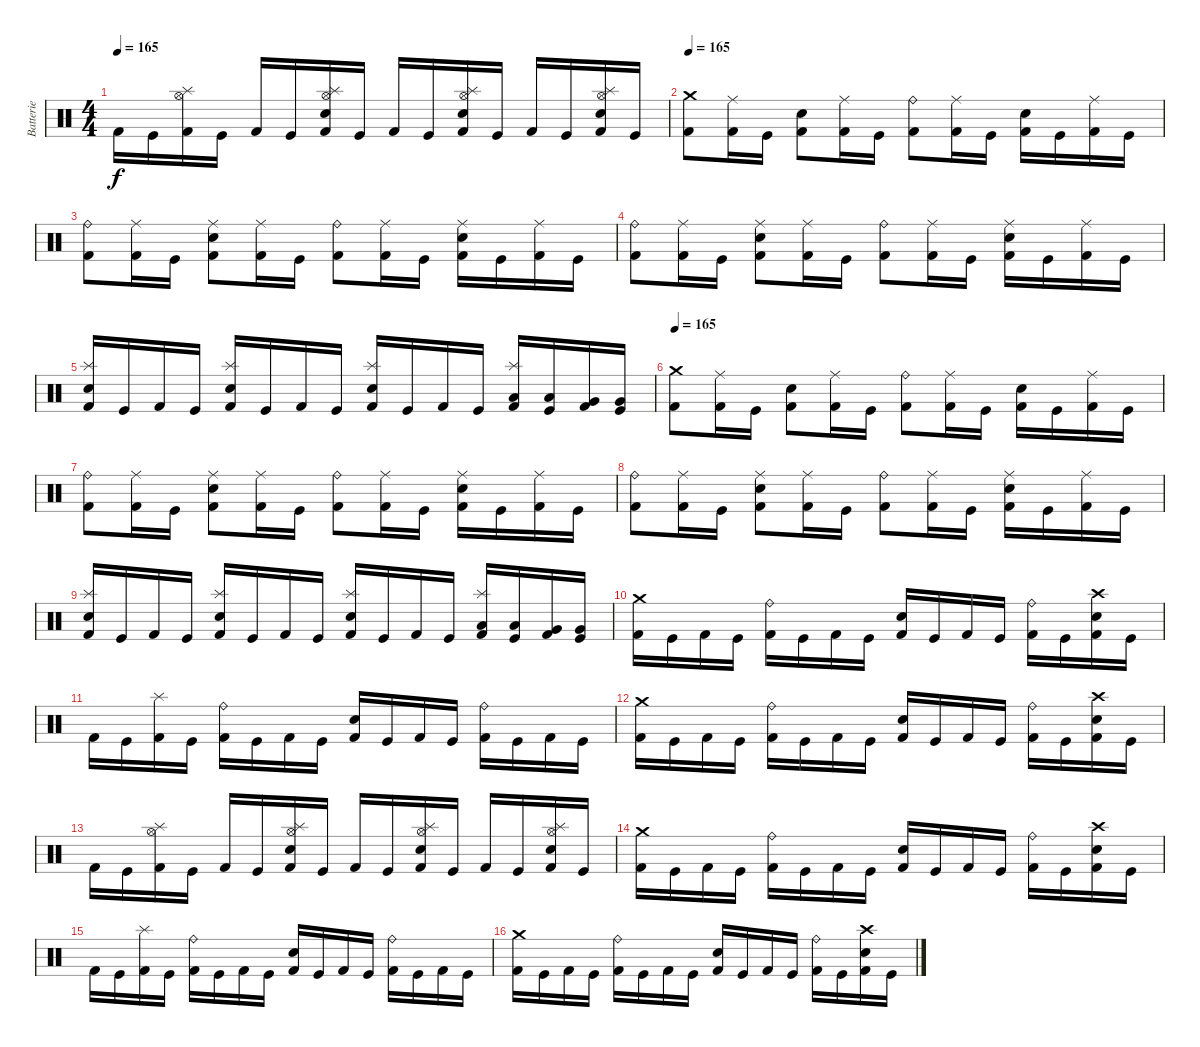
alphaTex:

\track ("Batterie" "Batterie") {instrument percussion}
\staff {score}
\articulation defaults
\ts (4 4)
\tempo 165
\clef neutral
\ks c "Kick (hit) 2".16{dy f} "Kick (hit)".16
("Hi-Hat (open)" "Splash (hit)" "Kick (hit) 2").16 "Kick (hit)".16 "Kick (hit) 2".16 "Kick (hit)".16 ("Hi-Hat (open)" "Splash (hit)" "Snare (hit) 2" "Kick (hit) 2").16 "Kick (hit)".16 "Kick (hit) 2".16 "Kick (hit)".16 ("Hi-Hat (open)" "Splash (hit)" "Snare (hit) 2" "Kick (hit) 2").16 "Kick (hit)".16 "Kick (hit) 2".16 "Kick (hit)".16 ("Hi-Hat (open)" "Splash (hit)" "Snare (hit) 2" "Kick (hit) 2").16 "Kick (hit)".16 |
\tempo 165
("Crash medium (hit)" "Kick (hit) 2").8 ("Ride (middle)" "Kick (hit) 2").16 "Kick (hit)".16 ("Snare (hit) 2" "Kick (hit) 2").8 ("Ride (middle)" "Kick (hit) 2").16 "Kick (hit)".16 ("Ride (bell)" "Kick (hit) 2").8 ("Ride (middle)" "Kick (hit) 2").16 "Kick (hit)".16 ("Snare (hit) 2" "Kick (hit) 2").16 "Kick (hit)".16 ("Ride (middle)" "Kick (hit) 2").16 "Kick (hit)".16 |
("Ride (bell)" "Kick (hit) 2").8 ("Ride (middle)" "Kick (hit) 2").16 "Kick (hit)".16 ("Ride (middle)" "Snare (hit) 2" "Kick (hit) 2").8 ("Ride (middle)" "Kick (hit) 2").16 "Kick (hit)".16 ("Ride (bell)" "Kick (hit) 2").8 ("Ride (middle)" "Kick (hit) 2").16 "Kick (hit)".16 ("Ride (middle)" "Snare (hit) 2" "Kick (hit) 2").16 "Kick (hit)".16 ("Ride (middle)" "Kick (hit) 2").16 "Kick (hit)".16 |
("Ride (bell)" "Kick (hit) 2").8 ("Ride (middle)" "Kick (hit) 2").16 "Kick (hit)".16 ("Ride (middle)" "Snare (hit) 2" "Kick (hit) 2").8 ("Ride (middle)" "Kick (hit) 2").16 "Kick (hit)".16 ("Ride (bell)" "Kick (hit) 2").8 ("Ride (middle)" "Kick (hit) 2").16 "Kick (hit)".16 ("Ride (middle)" "Snare (hit) 2" "Kick (hit) 2").16 "Kick (hit)".16 ("Ride (middle)" "Kick (hit) 2").16 "Kick (hit)".16 |
("Splash (hit)" "Snare (hit) 2" "Kick (hit) 2").16 "Kick (hit)".16 "Kick (hit) 2".16 "Kick (hit)".16 ("Splash (hit)" "Snare (hit) 2" "Kick (hit) 2").16 "Kick (hit)".16 "Kick (hit) 2".16 "Kick (hit)".16 ("Splash (hit)" "Snare (hit) 2" "Kick (hit) 2").16 "Kick (hit)".16 "Kick (hit) 2".16 "Kick (hit)".16 ("Splash (hit)" "Low Tom (hit)" "Kick (hit) 2").16 ("Low Tom (hit)" "Kick (hit)").16 ("Very Low Tom (hit)" "Kick (hit) 2").16 ("Very Low Tom (hit)" "Kick (hit)").16 |
\tempo 165
("Crash medium (hit)" "Kick (hit) 2").8 ("Ride (middle)" "Kick (hit) 2").16 "Kick (hit)".16 ("Snare (hit) 2" "Kick (hit) 2").8 ("Ride (middle)" "Kick (hit) 2").16 "Kick (hit)".16 ("Ride (bell)" "Kick (hit) 2").8 ("Ride (middle)" "Kick (hit) 2").16 "Kick (hit)".16 ("Snare (hit) 2" "Kick (hit) 2").16 "Kick (hit)".16 ("Ride (middle)" "Kick (hit) 2").16 "Kick (hit)".16 |
("Ride (bell)" "Kick (hit) 2").8 ("Ride (middle)" "Kick (hit) 2").16 "Kick (hit)".16 ("Ride (middle)" "Snare (hit) 2" "Kick (hit) 2").8 ("Ride (middle)" "Kick (hit) 2").16 "Kick (hit)".16 ("Ride (bell)" "Kick (hit) 2").8 ("Ride (middle)" "Kick (hit) 2").16 "Kick (hit)".16 ("Ride (middle)" "Snare (hit) 2" "Kick (hit) 2").16 "Kick (hit)".16 ("Ride (middle)" "Kick (hit) 2").16 "Kick (hit)".16 |
("Ride (bell)" "Kick (hit) 2").8 ("Ride (middle)" "Kick (hit) 2").16 "Kick (hit)".16 ("Ride (middle)" "Snare (hit) 2" "Kick (hit) 2").8 ("Ride (middle)" "Kick (hit) 2").16 "Kick (hit)".16 ("Ride (bell)" "Kick (hit) 2").8 ("Ride (middle)" "Kick (hit) 2").16 "Kick (hit)".16 ("Ride (middle)" "Snare (hit) 2" "Kick (hit) 2").16 "Kick (hit)".16 ("Ride (middle)" "Kick (hit) 2").16 "Kick (hit)".16 |
("Splash (hit)" "Snare (hit) 2" "Kick (hit) 2").16 "Kick (hit)".16 "Kick (hit) 2".16 "Kick (hit)".16 ("Splash (hit)" "Snare (hit) 2" "Kick (hit) 2").16 "Kick (hit)".16 "Kick (hit) 2".16 "Kick (hit)".16 ("Splash (hit)" "Snare (hit) 2" "Kick (hit) 2").16 "Kick (hit)".16 "Kick (hit) 2".16 "Kick (hit)".16 ("Splash (hit)" "Low Tom (hit)" "Kick (hit) 2").16 ("Low Tom (hit)" "Kick (hit)").16 ("Very Low Tom (hit)" "Kick (hit) 2").16 ("Very Low Tom (hit)" "Kick (hit)").16 |
("Crash medium (hit)" "Kick (hit) 2").16 "Kick (hit)".16 "Kick (hit) 2".16 "Kick (hit)".16 ("Ride (bell)" "Kick (hit) 2").16 "Kick (hit)".16 "Kick (hit) 2".16 "Kick (hit)".16 ("Snare (hit) 2" "Kick (hit) 2").16 "Kick (hit)".16 "Kick (hit) 2".16 "Kick (hit)".16 ("Ride (bell)" "Kick (hit) 2").16 "Kick (hit)".16 ("Crash high (hit)" "Snare (hit) 2" "Kick (hit) 2").16 "Kick (hit)".16 |
"Kick (hit) 2".16 "Kick (hit)".16 ("Splash (hit)" "Kick (hit) 2").16 "Kick (hit)".16 ("Ride (bell)" "Kick (hit) 2").16 "Kick (hit)".16 "Kick (hit) 2".16 "Kick (hit)".16 ("Snare (hit) 2" "Kick (hit) 2").16 "Kick (hit)".16 "Kick (hit) 2".16 "Kick (hit)".16 ("Ride (bell)" "Kick (hit) 2").16 "Kick (hit)".16 "Kick (hit) 2".16 "Kick (hit)".16 |
("Crash medium (hit)" "Kick (hit) 2").16 "Kick (hit)".16 "Kick (hit) 2".16 "Kick (hit)".16 ("Ride (bell)" "Kick (hit) 2").16 "Kick (hit)".16 "Kick (hit) 2".16 "Kick (hit)".16 ("Snare (hit) 2" "Kick (hit) 2").16 "Kick (hit)".16 "Kick (hit) 2".16 "Kick (hit)".16 ("Ride (bell)" "Kick (hit) 2").16 "Kick (hit)".16 ("Crash high (hit)" "Snare (hit) 2" "Kick (hit) 2").16 "Kick (hit)".16 |
"Kick (hit) 2".16 "Kick (hit)".16 ("Hi-Hat (open)" "Splash (hit)" "Kick (hit) 2").16 "Kick (hit)".16 "Kick (hit) 2".16 "Kick (hit)".16 ("Hi-Hat (open)" "Splash (hit)" "Snare (hit) 2" "Kick (hit) 2").16 "Kick (hit)".16 "Kick (hit) 2".16 "Kick (hit)".16 ("Hi-Hat (open)" "Splash (hit)" "Snare (hit) 2" "Kick (hit) 2").16 "Kick (hit)".16 "Kick (hit) 2".16 "Kick (hit)".16 ("Hi-Hat (open)" "Splash (hit)" "Snare (hit) 2" "Kick (hit) 2").16 "Kick (hit)".16 |
("Crash medium (hit)" "Kick (hit) 2").16 "Kick (hit)".16 "Kick (hit) 2".16 "Kick (hit)".16 ("Ride (bell)" "Kick (hit) 2").16 "Kick (hit)".16 "Kick (hit) 2".16 "Kick (hit)".16 ("Snare (hit) 2" "Kick (hit) 2").16 "Kick (hit)".16 "Kick (hit) 2".16 "Kick (hit)".16 ("Ride (bell)" "Kick (hit) 2").16 "Kick (hit)".16 ("Crash high (hit)" "Snare (hit) 2" "Kick (hit) 2").16 "Kick (hit)".16 |
"Kick (hit) 2".16 "Kick (hit)".16 ("Splash (hit)" "Kick (hit) 2").16 "Kick (hit)".16 ("Ride (bell)" "Kick (hit) 2").16 "Kick (hit)".16 "Kick (hit) 2".16 "Kick (hit)".16 ("Snare (hit) 2" "Kick (hit) 2").16 "Kick (hit)".16 "Kick (hit) 2".16 "Kick (hit)".16 ("Ride (bell)" "Kick (hit) 2").16 "Kick (hit)".16 "Kick (hit) 2".16 "Kick (hit)".16 |
("Crash medium (hit)" "Kick (hit) 2").16 "Kick (hit)".16 "Kick (hit) 2".16 "Kick (hit)".16 ("Ride (bell)" "Kick (hit) 2").16 "Kick (hit)".16 "Kick (hit) 2".16 "Kick (hit)".16 ("Snare (hit) 2" "Kick (hit) 2").16 "Kick (hit)".16 "Kick (hit) 2".16 "Kick (hit)".16 ("Ride (bell)" "Kick (hit) 2").16 "Kick (hit)".16 ("Crash high (hit)" "Snare (hit) 2" "Kick (hit) 2").16 "Kick (hit)".16
